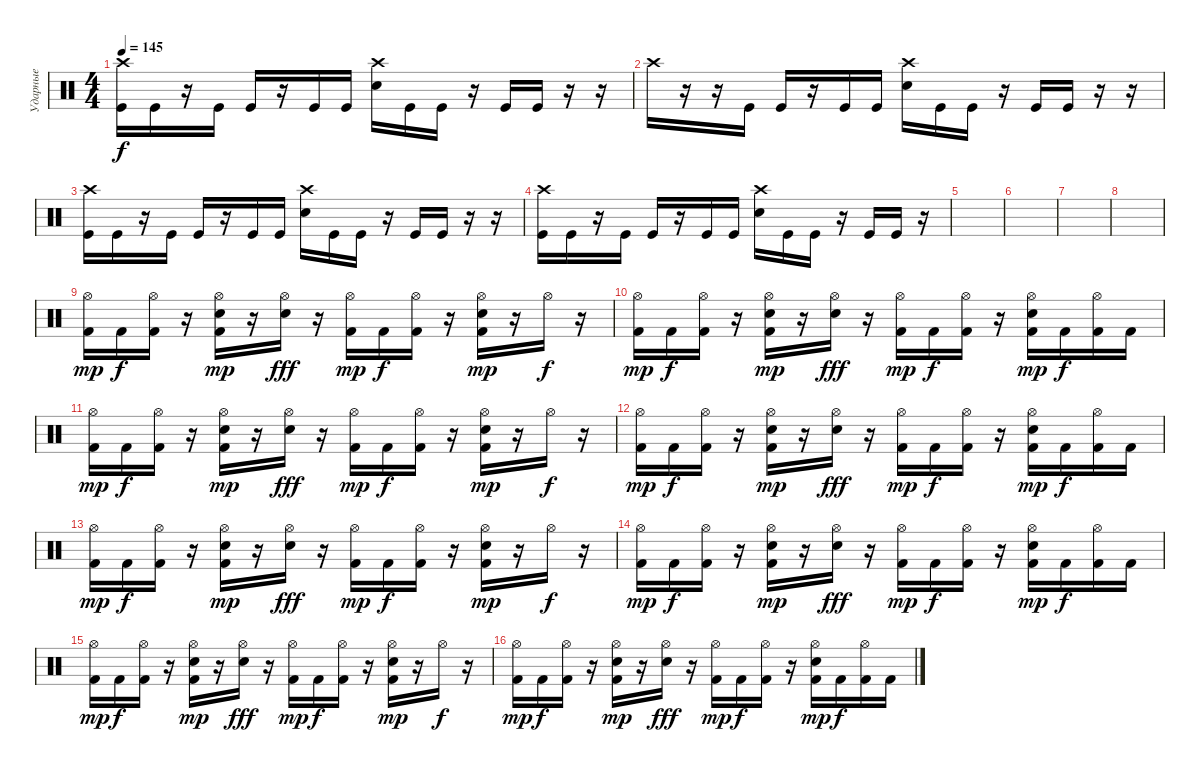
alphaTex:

\track ("Ударные" "Ударные") {instrument percussion}
\staff {score}
\articulation defaults
\ts (4 4)
\tempo 145
\clef neutral
\ks c
("Crash high (hit)" "Kick (hit)").16{dy f} "Kick (hit)".16 r.16 "Kick (hit)".16 "Kick (hit)".16 r.16 "Kick (hit)".16 "Kick (hit)".16 ("Crash high (hit)" "Electric Snare (hit)").16 "Kick (hit)".16 "Kick (hit)".16 r.16 "Kick (hit)".16 "Kick (hit)".16 r.16 r.16 |
"Crash high (hit)".16 r.16 r.16 "Kick (hit)".16 "Kick (hit)".16 r.16 "Kick (hit)".16 "Kick (hit)".16 ("Crash high (hit)" "Electric Snare (hit)").16 "Kick (hit)".16 "Kick (hit)".16 r.16 "Kick (hit)".16 "Kick (hit)".16 r.16 r.16 |
("Crash high (hit)" "Kick (hit)").16 "Kick (hit)".16 r.16 "Kick (hit)".16 "Kick (hit)".16 r.16 "Kick (hit)".16 "Kick (hit)".16 ("Crash high (hit)" "Electric Snare (hit)").16 "Kick (hit)".16 "Kick (hit)".16 r.16 "Kick (hit)".16 "Kick (hit)".16 r.16 r.16 |
("Crash high (hit)" "Kick (hit)").16 "Kick (hit)".16 r.16 "Kick (hit)".16 "Kick (hit)".16 r.16 "Kick (hit)".16 "Kick (hit)".16 ("Crash high (hit)" "Electric Snare (hit)").16 "Kick (hit)".16 "Kick (hit)".16 r.16 "Kick (hit)".16 "Kick (hit)".16 r.16 |
|
|
|
|
("Kick (hit) 2" "Hi-Hat (open)").16{dy mp} "Kick (hit) 2".16{dy f} ("Kick (hit) 2" "Hi-Hat (open)").16 r.16 ("Kick (hit) 2" "Hand Clap (hit)" "Hi-Hat (open)").16{dy mp} r.16 ("Hand Clap (hit)" "Hi-Hat (open)").16{dy fff} r.16 ("Kick (hit) 2" "Hi-Hat (open)").16{dy mp} "Kick (hit) 2".16{dy f} ("Kick (hit) 2" "Hi-Hat (open)").16 r.16 ("Kick (hit) 2" "Hand Clap (hit)" "Hi-Hat (open)").16{dy mp} r.16 "Hi-Hat (open)".16{dy f} r.16 |
("Kick (hit) 2" "Hi-Hat (open)").16{dy mp} "Kick (hit) 2".16{dy f} ("Kick (hit) 2" "Hi-Hat (open)").16 r.16 ("Kick (hit) 2" "Hand Clap (hit)" "Hi-Hat (open)").16{dy mp} r.16 ("Hand Clap (hit)" "Hi-Hat (open)").16{dy fff} r.16 ("Kick (hit) 2" "Hi-Hat (open)").16{dy mp} "Kick (hit) 2".16{dy f} ("Kick (hit) 2" "Hi-Hat (open)").16 r.16 ("Kick (hit) 2" "Hand Clap (hit)" "Hi-Hat (open)").16{dy mp} "Kick (hit) 2".16{dy f} ("Kick (hit) 2" "Hi-Hat (open)").16 "Kick (hit) 2".16 |
("Kick (hit) 2" "Hi-Hat (open)").16{dy mp} "Kick (hit) 2".16{dy f} ("Kick (hit) 2" "Hi-Hat (open)").16 r.16 ("Kick (hit) 2" "Hand Clap (hit)" "Hi-Hat (open)").16{dy mp} r.16 ("Hand Clap (hit)" "Hi-Hat (open)").16{dy fff} r.16 ("Kick (hit) 2" "Hi-Hat (open)").16{dy mp} "Kick (hit) 2".16{dy f} ("Kick (hit) 2" "Hi-Hat (open)").16 r.16 ("Kick (hit) 2" "Hand Clap (hit)" "Hi-Hat (open)").16{dy mp} r.16 "Hi-Hat (open)".16{dy f} r.16 |
("Kick (hit) 2" "Hi-Hat (open)").16{dy mp} "Kick (hit) 2".16{dy f} ("Kick (hit) 2" "Hi-Hat (open)").16 r.16 ("Kick (hit) 2" "Hand Clap (hit)" "Hi-Hat (open)").16{dy mp} r.16 ("Hand Clap (hit)" "Hi-Hat (open)").16{dy fff} r.16 ("Kick (hit) 2" "Hi-Hat (open)").16{dy mp} "Kick (hit) 2".16{dy f} ("Kick (hit) 2" "Hi-Hat (open)").16 r.16 ("Kick (hit) 2" "Hand Clap (hit)" "Hi-Hat (open)").16{dy mp} "Kick (hit) 2".16{dy f} ("Kick (hit) 2" "Hi-Hat (open)").16 "Kick (hit) 2".16 |
("Kick (hit) 2" "Hi-Hat (open)").16{dy mp} "Kick (hit) 2".16{dy f} ("Kick (hit) 2" "Hi-Hat (open)").16 r.16 ("Kick (hit) 2" "Hand Clap (hit)" "Hi-Hat (open)").16{dy mp} r.16 ("Hand Clap (hit)" "Hi-Hat (open)").16{dy fff} r.16 ("Kick (hit) 2" "Hi-Hat (open)").16{dy mp} "Kick (hit) 2".16{dy f} ("Kick (hit) 2" "Hi-Hat (open)").16 r.16 ("Kick (hit) 2" "Hand Clap (hit)" "Hi-Hat (open)").16{dy mp} r.16 "Hi-Hat (open)".16{dy f} r.16 |
("Kick (hit) 2" "Hi-Hat (open)").16{dy mp} "Kick (hit) 2".16{dy f} ("Kick (hit) 2" "Hi-Hat (open)").16 r.16 ("Kick (hit) 2" "Hand Clap (hit)" "Hi-Hat (open)").16{dy mp} r.16 ("Hand Clap (hit)" "Hi-Hat (open)").16{dy fff} r.16 ("Kick (hit) 2" "Hi-Hat (open)").16{dy mp} "Kick (hit) 2".16{dy f} ("Kick (hit) 2" "Hi-Hat (open)").16 r.16 ("Kick (hit) 2" "Hand Clap (hit)" "Hi-Hat (open)").16{dy mp} "Kick (hit) 2".16{dy f} ("Kick (hit) 2" "Hi-Hat (open)").16 "Kick (hit) 2".16 |
("Kick (hit) 2" "Hi-Hat (open)").16{dy mp} "Kick (hit) 2".16{dy f} ("Kick (hit) 2" "Hi-Hat (open)").16 r.16 ("Kick (hit) 2" "Hand Clap (hit)" "Hi-Hat (open)").16{dy mp} r.16 ("Hand Clap (hit)" "Hi-Hat (open)").16{dy fff} r.16 ("Kick (hit) 2" "Hi-Hat (open)").16{dy mp} "Kick (hit) 2".16{dy f} ("Kick (hit) 2" "Hi-Hat (open)").16 r.16 ("Kick (hit) 2" "Hand Clap (hit)" "Hi-Hat (open)").16{dy mp} r.16 "Hi-Hat (open)".16{dy f} r.16 |
("Kick (hit) 2" "Hi-Hat (open)").16{dy mp} "Kick (hit) 2".16{dy f} ("Kick (hit) 2" "Hi-Hat (open)").16 r.16 ("Kick (hit) 2" "Hand Clap (hit)" "Hi-Hat (open)").16{dy mp} r.16 ("Hand Clap (hit)" "Hi-Hat (open)").16{dy fff} r.16 ("Kick (hit) 2" "Hi-Hat (open)").16{dy mp} "Kick (hit) 2".16{dy f} ("Kick (hit) 2" "Hi-Hat (open)").16 r.16 ("Kick (hit) 2" "Hand Clap (hit)" "Hi-Hat (open)").16{dy mp} "Kick (hit) 2".16{dy f} ("Kick (hit) 2" "Hi-Hat (open)").16 "Kick (hit) 2".16
